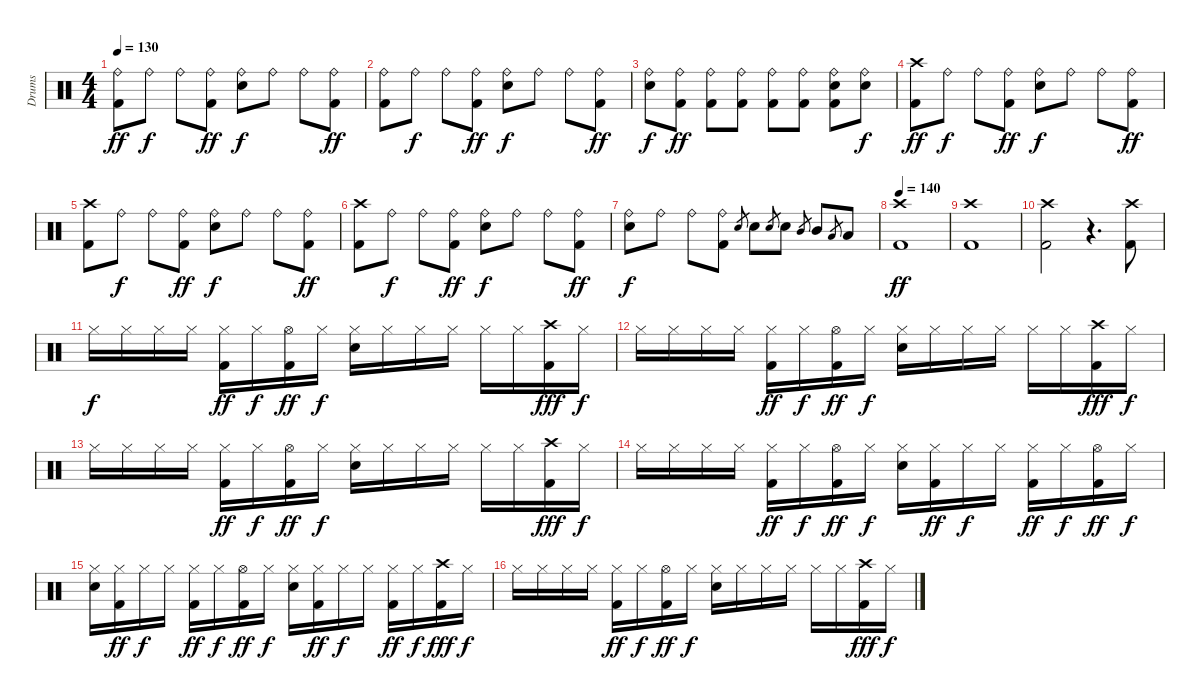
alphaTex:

\track ("Drums" "Drums") {instrument percussion}
\staff {score}
\articulation defaults
\ts (4 4)
\tempo 130
\clef neutral
\ks c
("Ride (bell)" "Kick (hit) 2").8{dy ff} "Ride (bell)".8{dy f} "Ride (bell)".8 ("Ride (bell)" "Kick (hit) 2").8{dy ff} ("Ride (bell)" "Snare (hit) 2").8{dy f} "Ride (bell)".8 "Ride (bell)".8 ("Ride (bell)" "Kick (hit) 2").8{dy ff} |
("Ride (bell)" "Kick (hit) 2").8 "Ride (bell)".8{dy f} "Ride (bell)".8 ("Ride (bell)" "Kick (hit) 2").8{dy ff} ("Ride (bell)" "Snare (hit) 2").8{dy f} "Ride (bell)".8 "Ride (bell)".8 ("Ride (bell)" "Kick (hit) 2").8{dy ff} |
("Ride (bell)" "Snare (hit) 2").8{dy f} ("Ride (bell)" "Kick (hit) 2").8{dy ff} ("Ride (bell)" "Kick (hit) 2").8 ("Ride (bell)" "Kick (hit) 2").8 ("Ride (bell)" "Kick (hit) 2").8 ("Ride (bell)" "Kick (hit) 2").8 ("Ride (bell)" "Snare (hit) 2" "Kick (hit) 2").8 ("Ride (bell)" "Snare (hit) 2").8{dy f} |
("Crash high (hit)" "Kick (hit) 2").8{dy ff} "Ride (bell)".8{dy f} "Ride (bell)".8 ("Ride (bell)" "Kick (hit) 2").8{dy ff} ("Ride (bell)" "Snare (hit) 2").8{dy f} "Ride (bell)".8 "Ride (bell)".8 ("Ride (bell)" "Kick (hit) 2").8{dy ff} |
("Crash high (hit)" "Kick (hit) 2").8 "Ride (bell)".8{dy f} "Ride (bell)".8 ("Ride (bell)" "Kick (hit) 2").8{dy ff} ("Ride (bell)" "Snare (hit) 2").8{dy f} "Ride (bell)".8 "Ride (bell)".8 ("Ride (bell)" "Kick (hit) 2").8{dy ff} |
("Crash high (hit)" "Kick (hit) 2").8 "Ride (bell)".8{dy f} "Ride (bell)".8 ("Ride (bell)" "Kick (hit) 2").8{dy ff} ("Ride (bell)" "Snare (hit) 2").8{dy f} "Ride (bell)".8 "Ride (bell)".8 ("Ride (bell)" "Kick (hit) 2").8{dy ff} |
("Ride (bell)" "Snare (hit) 2").8{dy f} "Ride (bell)".8 "Ride (bell)".8 ("Ride (bell)" "Kick (hit) 2").8 "Snare (hit) 2".8{gr} "Snare (hit) 2".8 "Snare (hit) 2".8{gr} "Snare (hit) 2".8 "Mid Tom (hit)".8{gr} "Mid Tom (hit)".8 "Low Tom (hit)".8{gr} "Low Tom (hit)".8 |
\tempo 140
("Crash high (hit)" "Kick (hit) 2").1{dy ff} |
("Crash high (hit)" "Kick (hit) 2").1 |
("Crash high (hit)" "Kick (hit) 2").2 r.4{d} ("Crash high (hit)" "Kick (hit) 2").8 |
"Hi-Hat (closed)".16{dy f} "Hi-Hat (closed)".16 "Hi-Hat (closed)".16 "Hi-Hat (closed)".16 ("Hi-Hat (closed)" "Kick (hit) 2").16{dy ff} "Hi-Hat (closed)".16{dy f} ("Hi-Hat (open)" "Kick (hit) 2").16{dy ff} "Hi-Hat (closed)".16{dy f} ("Hi-Hat (closed)" "Snare (hit) 2").16 "Hi-Hat (closed)".16 "Hi-Hat (closed)".16 "Hi-Hat (closed)".16 "Hi-Hat (closed)".16 "Hi-Hat (closed)".16 ("Kick (hit) 2" "Crash high (hit)").16{dy fff} "Hi-Hat (closed)".16{dy f} |
"Hi-Hat (closed)".16 "Hi-Hat (closed)".16 "Hi-Hat (closed)".16 "Hi-Hat (closed)".16 ("Hi-Hat (closed)" "Kick (hit) 2").16{dy ff} "Hi-Hat (closed)".16{dy f} ("Hi-Hat (open)" "Kick (hit) 2").16{dy ff} "Hi-Hat (closed)".16{dy f} ("Hi-Hat (closed)" "Snare (hit) 2").16 "Hi-Hat (closed)".16 "Hi-Hat (closed)".16 "Hi-Hat (closed)".16 "Hi-Hat (closed)".16 "Hi-Hat (closed)".16 ("Kick (hit) 2" "Crash high (hit)").16{dy fff} "Hi-Hat (closed)".16{dy f} |
"Hi-Hat (closed)".16 "Hi-Hat (closed)".16 "Hi-Hat (closed)".16 "Hi-Hat (closed)".16 ("Hi-Hat (closed)" "Kick (hit) 2").16{dy ff} "Hi-Hat (closed)".16{dy f} ("Hi-Hat (open)" "Kick (hit) 2").16{dy ff} "Hi-Hat (closed)".16{dy f} ("Hi-Hat (closed)" "Snare (hit) 2").16 "Hi-Hat (closed)".16 "Hi-Hat (closed)".16 "Hi-Hat (closed)".16 "Hi-Hat (closed)".16 "Hi-Hat (closed)".16 ("Kick (hit) 2" "Crash high (hit)").16{dy fff} "Hi-Hat (closed)".16{dy f} |
"Hi-Hat (closed)".16 "Hi-Hat (closed)".16 "Hi-Hat (closed)".16 "Hi-Hat (closed)".16 ("Hi-Hat (closed)" "Kick (hit) 2").16{dy ff} "Hi-Hat (closed)".16{dy f} ("Hi-Hat (open)" "Kick (hit) 2").16{dy ff} "Hi-Hat (closed)".16{dy f} ("Hi-Hat (closed)" "Snare (hit) 2").16 ("Hi-Hat (closed)" "Kick (hit) 2").16{dy ff} "Hi-Hat (closed)".16{dy f} "Hi-Hat (closed)".16 ("Hi-Hat (closed)" "Kick (hit) 2").16{dy ff} "Hi-Hat (closed)".16{dy f} ("Hi-Hat (open)" "Kick (hit) 2").16{dy ff} "Hi-Hat (closed)".16{dy f} |
("Hi-Hat (closed)" "Snare (hit) 2").16 ("Hi-Hat (closed)" "Kick (hit) 2").16{dy ff} "Hi-Hat (closed)".16{dy f} "Hi-Hat (closed)".16 ("Hi-Hat (closed)" "Kick (hit) 2").16{dy ff} "Hi-Hat (closed)".16{dy f} ("Hi-Hat (open)" "Kick (hit) 2").16{dy ff} "Hi-Hat (closed)".16{dy f} ("Hi-Hat (closed)" "Snare (hit) 2").16 ("Hi-Hat (closed)" "Kick (hit) 2").16{dy ff} "Hi-Hat (closed)".16{dy f} "Hi-Hat (closed)".16 ("Hi-Hat (closed)" "Kick (hit) 2").16{dy ff} "Hi-Hat (closed)".16{dy f} ("Kick (hit) 2" "Crash high (hit)").16{dy fff} "Hi-Hat (closed)".16{dy f} |
"Hi-Hat (closed)".16 "Hi-Hat (closed)".16 "Hi-Hat (closed)".16 "Hi-Hat (closed)".16 ("Hi-Hat (closed)" "Kick (hit) 2").16{dy ff} "Hi-Hat (closed)".16{dy f} ("Hi-Hat (open)" "Kick (hit) 2").16{dy ff} "Hi-Hat (closed)".16{dy f} ("Hi-Hat (closed)" "Snare (hit) 2").16 "Hi-Hat (closed)".16 "Hi-Hat (closed)".16 "Hi-Hat (closed)".16 "Hi-Hat (closed)".16 "Hi-Hat (closed)".16 ("Kick (hit) 2" "Crash high (hit)").16{dy fff} "Hi-Hat (closed)".16{dy f}
